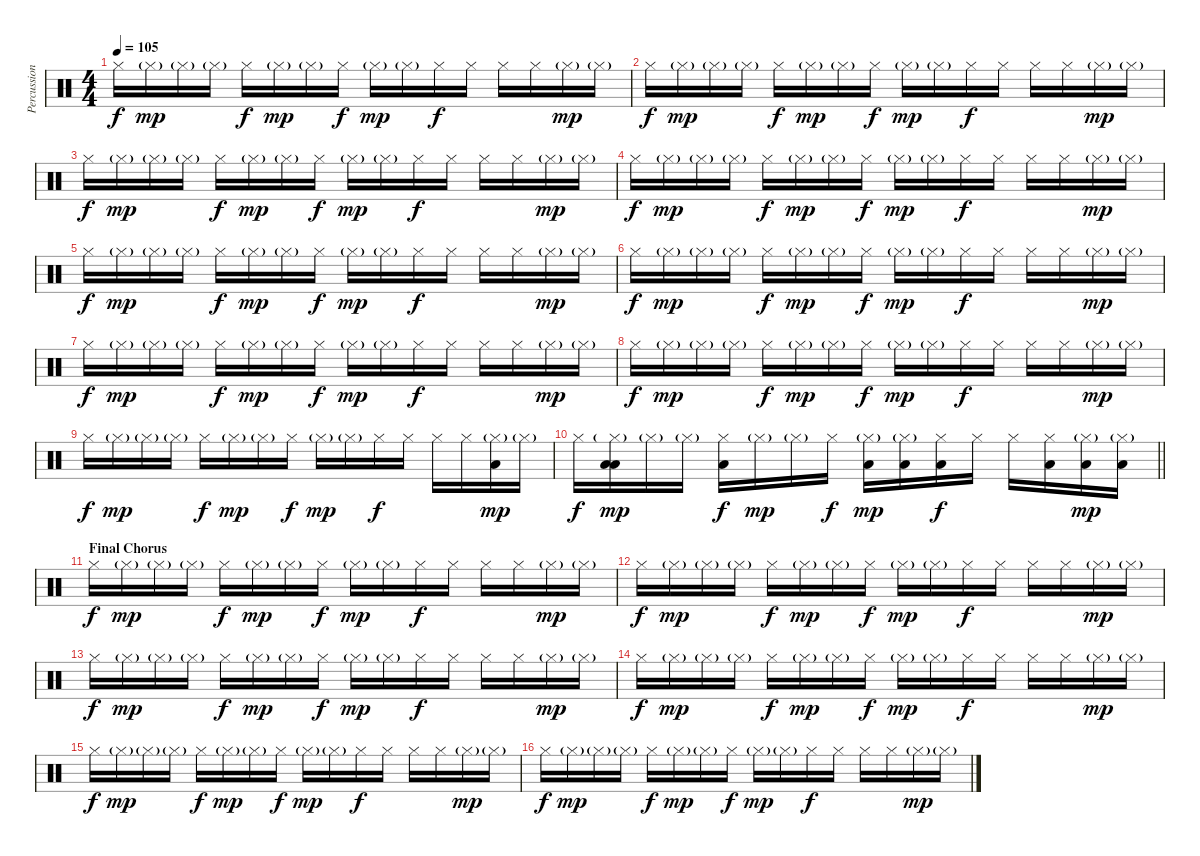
\track ("Percussions and Arrangements" "Percussion") {instrument percussion}
\staff {score}
\articulation defaults
\ts (4 4)
\tempo 105
\clef neutral
\ks c "Hi-Hat (closed)".16{dy f} "Hi-Hat (closed)"{g}.16{dy mp} "Hi-Hat (closed)"{g}.16 "Hi-Hat (closed)"{g}.16 "Hi-Hat (closed)".16{dy f} "Hi-Hat (closed)"{g}.16{dy mp} "Hi-Hat (closed)"{g}.16 "Hi-Hat (closed)".16{dy f} "Hi-Hat (closed)"{g}.16{dy mp} "Hi-Hat (closed)"{g}.16 "Hi-Hat (closed)".16{dy f} "Hi-Hat (closed)".16 "Hi-Hat (closed)".16 "Hi-Hat (closed)".16 "Hi-Hat (closed)"{g}.16{dy mp} "Hi-Hat (closed)"{g}.16
|
"Hi-Hat (closed)".16{dy f} "Hi-Hat (closed)"{g}.16{dy mp} "Hi-Hat (closed)"{g}.16 "Hi-Hat (closed)"{g}.16 "Hi-Hat (closed)".16{dy f} "Hi-Hat (closed)"{g}.16{dy mp} "Hi-Hat (closed)"{g}.16 "Hi-Hat (closed)".16{dy f} "Hi-Hat (closed)"{g}.16{dy mp} "Hi-Hat (closed)"{g}.16 "Hi-Hat (closed)".16{dy f} "Hi-Hat (closed)".16 "Hi-Hat (closed)".16 "Hi-Hat (closed)".16 "Hi-Hat (closed)"{g}.16{dy mp} "Hi-Hat (closed)"{g}.16 |
"Hi-Hat (closed)".16{dy f} "Hi-Hat (closed)"{g}.16{dy mp} "Hi-Hat (closed)"{g}.16 "Hi-Hat (closed)"{g}.16 "Hi-Hat (closed)".16{dy f} "Hi-Hat (closed)"{g}.16{dy mp} "Hi-Hat (closed)"{g}.16 "Hi-Hat (closed)".16{dy f} "Hi-Hat (closed)"{g}.16{dy mp} "Hi-Hat (closed)"{g}.16 "Hi-Hat (closed)".16{dy f} "Hi-Hat (closed)".16 "Hi-Hat (closed)".16 "Hi-Hat (closed)".16 "Hi-Hat (closed)"{g}.16{dy mp} "Hi-Hat (closed)"{g}.16 |
"Hi-Hat (closed)".16{dy f} "Hi-Hat (closed)"{g}.16{dy mp} "Hi-Hat (closed)"{g}.16 "Hi-Hat (closed)"{g}.16 "Hi-Hat (closed)".16{dy f} "Hi-Hat (closed)"{g}.16{dy mp} "Hi-Hat (closed)"{g}.16 "Hi-Hat (closed)".16{dy f} "Hi-Hat (closed)"{g}.16{dy mp} "Hi-Hat (closed)"{g}.16 "Hi-Hat (closed)".16{dy f} "Hi-Hat (closed)".16 "Hi-Hat (closed)".16 "Hi-Hat (closed)".16 "Hi-Hat (closed)"{g}.16{dy mp} "Hi-Hat (closed)"{g}.16 |
"Hi-Hat (closed)".16{dy f} "Hi-Hat (closed)"{g}.16{dy mp} "Hi-Hat (closed)"{g}.16 "Hi-Hat (closed)"{g}.16 "Hi-Hat (closed)".16{dy f} "Hi-Hat (closed)"{g}.16{dy mp} "Hi-Hat (closed)"{g}.16 "Hi-Hat (closed)".16{dy f} "Hi-Hat (closed)"{g}.16{dy mp} "Hi-Hat (closed)"{g}.16 "Hi-Hat (closed)".16{dy f} "Hi-Hat (closed)".16 "Hi-Hat (closed)".16 "Hi-Hat (closed)".16 "Hi-Hat (closed)"{g}.16{dy mp} "Hi-Hat (closed)"{g}.16 |
"Hi-Hat (closed)".16{dy f} "Hi-Hat (closed)"{g}.16{dy mp} "Hi-Hat (closed)"{g}.16 "Hi-Hat (closed)"{g}.16 "Hi-Hat (closed)".16{dy f} "Hi-Hat (closed)"{g}.16{dy mp} "Hi-Hat (closed)"{g}.16 "Hi-Hat (closed)".16{dy f} "Hi-Hat (closed)"{g}.16{dy mp} "Hi-Hat (closed)"{g}.16 "Hi-Hat (closed)".16{dy f} "Hi-Hat (closed)".16 "Hi-Hat (closed)".16 "Hi-Hat (closed)".16 "Hi-Hat (closed)"{g}.16{dy mp} "Hi-Hat (closed)"{g}.16 |
"Hi-Hat (closed)".16{dy f} "Hi-Hat (closed)"{g}.16{dy mp} "Hi-Hat (closed)"{g}.16 "Hi-Hat (closed)"{g}.16 "Hi-Hat (closed)".16{dy f} "Hi-Hat (closed)"{g}.16{dy mp} "Hi-Hat (closed)"{g}.16 "Hi-Hat (closed)".16{dy f} "Hi-Hat (closed)"{g}.16{dy mp} "Hi-Hat (closed)"{g}.16 "Hi-Hat (closed)".16{dy f} "Hi-Hat (closed)".16 "Hi-Hat (closed)".16 "Hi-Hat (closed)".16 "Hi-Hat (closed)"{g}.16{dy mp} "Hi-Hat (closed)"{g}.16 |
"Hi-Hat (closed)".16{dy f} "Hi-Hat (closed)"{g}.16{dy mp} "Hi-Hat (closed)"{g}.16 "Hi-Hat (closed)"{g}.16 "Hi-Hat (closed)".16{dy f} "Hi-Hat (closed)"{g}.16{dy mp} "Hi-Hat (closed)"{g}.16 "Hi-Hat (closed)".16{dy f} "Hi-Hat (closed)"{g}.16{dy mp} "Hi-Hat (closed)"{g}.16 "Hi-Hat (closed)".16{dy f} "Hi-Hat (closed)".16 "Hi-Hat (closed)".16 "Hi-Hat (closed)".16 "Hi-Hat (closed)"{g}.16{dy mp} "Hi-Hat (closed)"{g}.16 |
"Hi-Hat (closed)".16{dy f} "Hi-Hat (closed)"{g}.16{dy mp} "Hi-Hat (closed)"{g}.16 "Hi-Hat (closed)"{g}.16 "Hi-Hat (closed)".16{dy f} "Hi-Hat (closed)"{g}.16{dy mp} "Hi-Hat (closed)"{g}.16 "Hi-Hat (closed)".16{dy f} "Hi-Hat (closed)"{g}.16{dy mp} "Hi-Hat (closed)"{g}.16 "Hi-Hat (closed)".16{dy f} "Hi-Hat (closed)".16 "Hi-Hat (closed)".16 "Hi-Hat (closed)".16 ("Hi-Hat (closed)"{g} "Low Tom (hit)").16{dy mp} "Hi-Hat (closed)"{g}.16 |
\barLineRight lightlight "Hi-Hat (closed)".16{dy f}
("Hi-Hat (closed)"{g} "Low Tom (hit)" "Low Floor Tom (hit)").16{dy mp} "Hi-Hat (closed)"{g}.16 "Hi-Hat (closed)"{g}.16 ("Hi-Hat (closed)" "Low Tom (hit)").16{dy f} "Hi-Hat (closed)"{g}.16{dy mp} "Hi-Hat (closed)"{g}.16 "Hi-Hat (closed)".16{dy f} ("Hi-Hat (closed)"{g} "Low Tom (hit)").16{dy mp} ("Hi-Hat (closed)"{g} "Low Floor Tom (hit)").16 ("Hi-Hat (closed)" "Low Floor Tom (hit)").16{dy f} "Hi-Hat (closed)".16 "Hi-Hat (closed)".16 ("Hi-Hat (closed)" "Low Tom (hit)").16 ("Hi-Hat (closed)"{g} "Low Tom (hit)").16{dy mp} ("Hi-Hat (closed)"{g} "Low Tom (hit)").16 |
\section ("" "Final Chorus")
"Hi-Hat (closed)".16{dy f} "Hi-Hat (closed)"{g}.16{dy mp} "Hi-Hat (closed)"{g}.16 "Hi-Hat (closed)"{g}.16 "Hi-Hat (closed)".16{dy f} "Hi-Hat (closed)"{g}.16{dy mp} "Hi-Hat (closed)"{g}.16 "Hi-Hat (closed)".16{dy f} "Hi-Hat (closed)"{g}.16{dy mp} "Hi-Hat (closed)"{g}.16 "Hi-Hat (closed)".16{dy f} "Hi-Hat (closed)".16 "Hi-Hat (closed)".16 "Hi-Hat (closed)".16 "Hi-Hat (closed)"{g}.16{dy mp} "Hi-Hat (closed)"{g}.16 |
"Hi-Hat (closed)".16{dy f} "Hi-Hat (closed)"{g}.16{dy mp} "Hi-Hat (closed)"{g}.16 "Hi-Hat (closed)"{g}.16 "Hi-Hat (closed)".16{dy f} "Hi-Hat (closed)"{g}.16{dy mp} "Hi-Hat (closed)"{g}.16 "Hi-Hat (closed)".16{dy f} "Hi-Hat (closed)"{g}.16{dy mp} "Hi-Hat (closed)"{g}.16 "Hi-Hat (closed)".16{dy f} "Hi-Hat (closed)".16 "Hi-Hat (closed)".16 "Hi-Hat (closed)".16 "Hi-Hat (closed)"{g}.16{dy mp} "Hi-Hat (closed)"{g}.16 |
"Hi-Hat (closed)".16{dy f} "Hi-Hat (closed)"{g}.16{dy mp} "Hi-Hat (closed)"{g}.16 "Hi-Hat (closed)"{g}.16 "Hi-Hat (closed)".16{dy f} "Hi-Hat (closed)"{g}.16{dy mp} "Hi-Hat (closed)"{g}.16 "Hi-Hat (closed)".16{dy f} "Hi-Hat (closed)"{g}.16{dy mp} "Hi-Hat (closed)"{g}.16 "Hi-Hat (closed)".16{dy f} "Hi-Hat (closed)".16 "Hi-Hat (closed)".16 "Hi-Hat (closed)".16 "Hi-Hat (closed)"{g}.16{dy mp} "Hi-Hat (closed)"{g}.16 |
"Hi-Hat (closed)".16{dy f} "Hi-Hat (closed)"{g}.16{dy mp} "Hi-Hat (closed)"{g}.16 "Hi-Hat (closed)"{g}.16 "Hi-Hat (closed)".16{dy f} "Hi-Hat (closed)"{g}.16{dy mp} "Hi-Hat (closed)"{g}.16 "Hi-Hat (closed)".16{dy f} "Hi-Hat (closed)"{g}.16{dy mp} "Hi-Hat (closed)"{g}.16 "Hi-Hat (closed)".16{dy f} "Hi-Hat (closed)".16 "Hi-Hat (closed)".16 "Hi-Hat (closed)".16 "Hi-Hat (closed)"{g}.16{dy mp} "Hi-Hat (closed)"{g}.16 |
"Hi-Hat (closed)".16{dy f} "Hi-Hat (closed)"{g}.16{dy mp} "Hi-Hat (closed)"{g}.16 "Hi-Hat (closed)"{g}.16 "Hi-Hat (closed)".16{dy f} "Hi-Hat (closed)"{g}.16{dy mp} "Hi-Hat (closed)"{g}.16 "Hi-Hat (closed)".16{dy f} "Hi-Hat (closed)"{g}.16{dy mp} "Hi-Hat (closed)"{g}.16 "Hi-Hat (closed)".16{dy f} "Hi-Hat (closed)".16 "Hi-Hat (closed)".16 "Hi-Hat (closed)".16 "Hi-Hat (closed)"{g}.16{dy mp} "Hi-Hat (closed)"{g}.16 |
"Hi-Hat (closed)".16{dy f} "Hi-Hat (closed)"{g}.16{dy mp} "Hi-Hat (closed)"{g}.16 "Hi-Hat (closed)"{g}.16 "Hi-Hat (closed)".16{dy f} "Hi-Hat (closed)"{g}.16{dy mp} "Hi-Hat (closed)"{g}.16 "Hi-Hat (closed)".16{dy f} "Hi-Hat (closed)"{g}.16{dy mp} "Hi-Hat (closed)"{g}.16 "Hi-Hat (closed)".16{dy f} "Hi-Hat (closed)".16 "Hi-Hat (closed)".16 "Hi-Hat (closed)".16 "Hi-Hat (closed)"{g}.16{dy mp} "Hi-Hat (closed)"{g}.16
